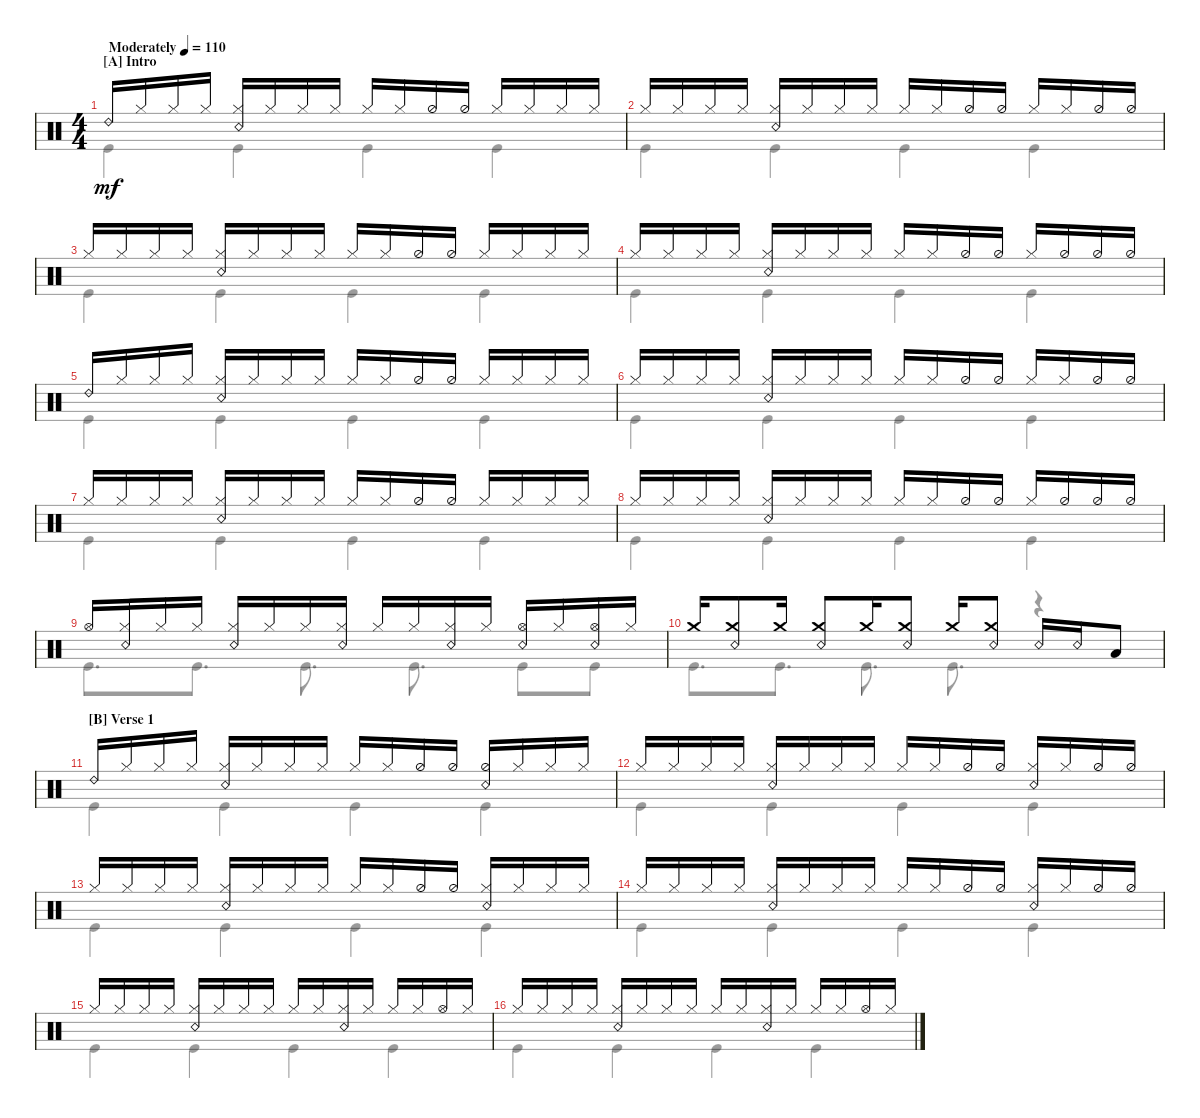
\defaultSystemsLayout 4
\bracketExtendMode groupsimilarinstruments
\singleTrackTrackNamePolicy hidden
\multiTrackTrackNamePolicy hidden
\firstSystemTrackNameOrientation horizontal
\otherSystemsTrackNameOrientation horizontal
\track ("Максим Удалов" "Drums") {instrument percussion}
\staff {score}
\articulation defaults
\voice
\ts (4 4)
\section ("A" "Intro")
\tempo (110 "Moderately")
\clef neutral
\scale
1.05675
\ks c "Ride (bell) 2".16{dy mf} "Hi-Hat (closed)".16 "Hi-Hat (closed)".16 "Hi-Hat (closed)".16
("Hi-Hat (closed)" "Snare (rim shot)").16 "Hi-Hat (closed)".16 "Hi-Hat (closed)".16 "Hi-Hat (closed)".16 "Hi-Hat (closed)".16 "Hi-Hat (closed)".16 "Hi-Hat (half)".16 "Hi-Hat (half)".16 "Hi-Hat (closed)".16 "Hi-Hat (closed)".16 "Hi-Hat (closed)".16 "Hi-Hat (closed)".16 |
\scale
0.943253 "Hi-Hat (closed)".16 "Hi-Hat (closed)".16 "Hi-Hat (closed)".16 "Hi-Hat (closed)".16 ("Hi-Hat (closed)" "Snare (rim shot)").16 "Hi-Hat (closed)".16 "Hi-Hat (closed)".16 "Hi-Hat (closed)".16 "Hi-Hat (closed)".16 "Hi-Hat (closed)".16 "Hi-Hat (half)".16 "Hi-Hat (half)".16 "Hi-Hat (closed)".16 "Hi-Hat (closed)".16 "Hi-Hat (half)".16 "Hi-Hat (half)".16 |
\scale
1.02648 "Hi-Hat (closed)".16 "Hi-Hat (closed)".16 "Hi-Hat (closed)".16 "Hi-Hat (closed)".16 ("Hi-Hat (closed)" "Snare (rim shot)").16 "Hi-Hat (closed)".16 "Hi-Hat (closed)".16 "Hi-Hat (closed)".16 "Hi-Hat (closed)".16 "Hi-Hat (closed)".16 "Hi-Hat (half)".16 "Hi-Hat (half)".16 "Hi-Hat (closed)".16 "Hi-Hat (closed)".16 "Hi-Hat (closed)".16 "Hi-Hat (closed)".16 |
\scale
0.973518 "Hi-Hat (closed)".16 "Hi-Hat (closed)".16 "Hi-Hat (closed)".16 "Hi-Hat (closed)".16 ("Hi-Hat (closed)" "Snare (rim shot)").16 "Hi-Hat (closed)".16 "Hi-Hat (closed)".16 "Hi-Hat (closed)".16 "Hi-Hat (closed)".16 "Hi-Hat (closed)".16 "Hi-Hat (half)".16 "Hi-Hat (half)".16 "Hi-Hat (closed)".16 "Hi-Hat (half)".16 "Hi-Hat (half)".16 "Hi-Hat (half)".16 |
\scale
1.02648 "Ride (bell) 2".16 "Hi-Hat (closed)".16 "Hi-Hat (closed)".16 "Hi-Hat (closed)".16 ("Hi-Hat (closed)" "Snare (rim shot)").16 "Hi-Hat (closed)".16 "Hi-Hat (closed)".16 "Hi-Hat (closed)".16 "Hi-Hat (closed)".16 "Hi-Hat (closed)".16 "Hi-Hat (half)".16 "Hi-Hat (half)".16 "Hi-Hat (closed)".16 "Hi-Hat (closed)".16 "Hi-Hat (closed)".16 "Hi-Hat (closed)".16 |
\scale
0.973518 "Hi-Hat (closed)".16 "Hi-Hat (closed)".16 "Hi-Hat (closed)".16 "Hi-Hat (closed)".16 ("Hi-Hat (closed)" "Snare (rim shot)").16 "Hi-Hat (closed)".16 "Hi-Hat (closed)".16 "Hi-Hat (closed)".16 "Hi-Hat (closed)".16 "Hi-Hat (closed)".16 "Hi-Hat (half)".16 "Hi-Hat (half)".16 "Hi-Hat (closed)".16 "Hi-Hat (closed)".16 "Hi-Hat (half)".16 "Hi-Hat (half)".16 |
\scale
1.02648 "Hi-Hat (closed)".16 "Hi-Hat (closed)".16 "Hi-Hat (closed)".16 "Hi-Hat (closed)".16 ("Hi-Hat (closed)" "Snare (rim shot)").16 "Hi-Hat (closed)".16 "Hi-Hat (closed)".16 "Hi-Hat (closed)".16 "Hi-Hat (closed)".16 "Hi-Hat (closed)".16 "Hi-Hat (half)".16 "Hi-Hat (half)".16 "Hi-Hat (closed)".16 "Hi-Hat (closed)".16 "Hi-Hat (closed)".16 "Hi-Hat (closed)".16 |
\scale
0.973518 "Hi-Hat (closed)".16 "Hi-Hat (closed)".16 "Hi-Hat (closed)".16 "Hi-Hat (closed)".16 ("Hi-Hat (closed)" "Snare (rim shot)").16 "Hi-Hat (closed)".16 "Hi-Hat (closed)".16 "Hi-Hat (closed)".16 "Hi-Hat (closed)".16 "Hi-Hat (closed)".16 "Hi-Hat (half)".16 "Hi-Hat (half)".16 "Hi-Hat (closed)".16 "Hi-Hat (half)".16 "Hi-Hat (half)".16 "Hi-Hat (half)".16 |
\scale
1.02648 "Hi-Hat (open)".16 ("Hi-Hat (closed)" "Snare (rim shot)").16 "Hi-Hat (closed)".16 "Hi-Hat (closed)".16 ("Hi-Hat (closed)" "Snare (rim shot)").16 "Hi-Hat (closed)".16 "Hi-Hat (closed)".16 ("Hi-Hat (closed)" "Snare (rim shot)").16 "Hi-Hat (closed)".16 "Hi-Hat (closed)".16 ("Hi-Hat (closed)" "Snare (rim shot)").16 "Hi-Hat (closed)".16 ("Hi-Hat (open)" "Snare (rim shot)").16 "Hi-Hat (closed)".16 ("Hi-Hat (open)" "Snare (rim shot)").16 "Hi-Hat (closed)".16 |
\scale
0.973518 "Crash medium (hit)".16 ("Crash medium (hit)" "Snare (rim shot)").8 "Crash medium (hit)".16 ("Crash medium (hit)" "Snare (rim shot)").8 "Crash medium (hit)".16 ("Crash medium (hit)" "Snare (rim shot)").8 "Crash medium (hit)".16 ("Crash medium (hit)" "Snare (rim shot)").8 "Snare (rim shot)".16 "Snare (rim shot)".16 "Low Tom (hit)".8 |
\section ("B" "Verse 1")
\scale
1.02648 "Ride (bell) 2".16 "Hi-Hat (closed)".16 "Hi-Hat (closed)".16 "Hi-Hat (closed)".16 ("Hi-Hat (closed)" "Snare (rim shot)").16 "Hi-Hat (closed)".16 "Hi-Hat (closed)".16 "Hi-Hat (closed)".16 "Hi-Hat (closed)".16 "Hi-Hat (closed)".16 "Hi-Hat (half)".16 "Hi-Hat (half)".16 ("Hi-Hat (half)" "Snare (rim shot)").16 "Hi-Hat (closed)".16 "Hi-Hat (closed)".16 "Hi-Hat (closed)".16 |
\scale
0.973518 "Hi-Hat (closed)".16 "Hi-Hat (closed)".16 "Hi-Hat (closed)".16 "Hi-Hat (closed)".16 ("Hi-Hat (closed)" "Snare (rim shot)").16 "Hi-Hat (closed)".16 "Hi-Hat (closed)".16 "Hi-Hat (closed)".16 "Hi-Hat (closed)".16 "Hi-Hat (closed)".16 "Hi-Hat (half)".16 "Hi-Hat (half)".16 ("Snare (rim shot)" "Hi-Hat (closed)").16 "Hi-Hat (closed)".16 "Hi-Hat (half)".16 "Hi-Hat (half)".16 |
\scale
1.02648 "Hi-Hat (closed)".16 "Hi-Hat (closed)".16 "Hi-Hat (closed)".16 "Hi-Hat (closed)".16 ("Hi-Hat (closed)" "Snare (rim shot)").16 "Hi-Hat (closed)".16 "Hi-Hat (closed)".16 "Hi-Hat (closed)".16 "Hi-Hat (closed)".16 "Hi-Hat (closed)".16 "Hi-Hat (half)".16 "Hi-Hat (half)".16 ("Snare (rim shot)" "Hi-Hat (closed)").16 "Hi-Hat (closed)".16 "Hi-Hat (closed)".16 "Hi-Hat (closed)".16 |
\scale
0.973518 "Hi-Hat (closed)".16 "Hi-Hat (closed)".16 "Hi-Hat (closed)".16 "Hi-Hat (closed)".16 ("Hi-Hat (closed)" "Snare (rim shot)").16 "Hi-Hat (closed)".16 "Hi-Hat (closed)".16 "Hi-Hat (closed)".16 "Hi-Hat (closed)".16 "Hi-Hat (closed)".16 "Hi-Hat (half)".16 "Hi-Hat (half)".16 ("Snare (rim shot)" "Hi-Hat (closed)").16 "Hi-Hat (closed)".16 "Hi-Hat (half)".16 "Hi-Hat (half)".16 |
\scale
1.02648 "Hi-Hat (closed)".16 "Hi-Hat (closed)".16 "Hi-Hat (closed)".16 "Hi-Hat (closed)".16 ("Hi-Hat (closed)" "Snare (rim shot)").16 "Hi-Hat (closed)".16 "Hi-Hat (closed)".16 "Hi-Hat (closed)".16 "Hi-Hat (closed)".16 "Hi-Hat (closed)".16 ("Hi-Hat (closed)" "Snare (rim shot)").16 "Hi-Hat (closed)".16 "Hi-Hat (closed)".16 "Hi-Hat (closed)".16 "Hi-Hat (open)".16 "Hi-Hat (closed)".16 |
\scale
0.973518 "Hi-Hat (closed)".16 "Hi-Hat (closed)".16 "Hi-Hat (closed)".16 "Hi-Hat (closed)".16 ("Hi-Hat (closed)" "Snare (rim shot)").16 "Hi-Hat (closed)".16 "Hi-Hat (closed)".16 "Hi-Hat (closed)".16 "Hi-Hat (closed)".16 "Hi-Hat (closed)".16 ("Hi-Hat (closed)" "Snare (rim shot)").16 "Hi-Hat (closed)".16 "Hi-Hat (closed)".16 "Hi-Hat (closed)".16 "Hi-Hat (open)".16 "Hi-Hat (closed)".16
\voice
\clef neutral
\ottava regular
\simile none
\scale
1.05675
\ks c "Kick (hit)".4{dy mf} "Kick (hit)".4 "Kick (hit)".4 "Kick (hit)".4
|
\scale
0.943253 "Kick (hit)".4 "Kick (hit)".4 "Kick (hit)".4 "Kick (hit)".4 |
\scale
1.02648 "Kick (hit)".4 "Kick (hit)".4 "Kick (hit)".4 "Kick (hit)".4 |
\scale
0.973518 "Kick (hit)".4 "Kick (hit)".4 "Kick (hit)".4 "Kick (hit)".4 |
\scale
1.02648 "Kick (hit)".4 "Kick (hit)".4 "Kick (hit)".4 "Kick (hit)".4 |
\scale
0.973518 "Kick (hit)".4 "Kick (hit)".4 "Kick (hit)".4 "Kick (hit)".4 |
\scale
1.02648 "Kick (hit)".4 "Kick (hit)".4 "Kick (hit)".4 "Kick (hit)".4 |
\scale
0.973518 "Kick (hit)".4 "Kick (hit)".4 "Kick (hit)".4 "Kick (hit)".4 |
\scale
1.02648 "Kick (hit)".8{d} "Kick (hit)".8{d} "Kick (hit)".8{d} "Kick (hit)".8{d} "Kick (hit)".8 "Kick (hit)".8 |
\scale
0.973518 "Kick (hit)".8{d} "Kick (hit)".8{d} "Kick (hit)".8{d} "Kick (hit)".8{d} r.4 |
\scale
1.02648 "Kick (hit)".4 "Kick (hit)".4 "Kick (hit)".4 "Kick (hit)".4 |
\scale
0.973518 "Kick (hit)".4 "Kick (hit)".4 "Kick (hit)".4 "Kick (hit)".4 |
\scale
1.02648 "Kick (hit)".4 "Kick (hit)".4 "Kick (hit)".4 "Kick (hit)".4 |
\scale
0.973518 "Kick (hit)".4 "Kick (hit)".4 "Kick (hit)".4 "Kick (hit)".4 |
\scale
1.02648 "Kick (hit)".4 "Kick (hit)".4 "Kick (hit)".4 "Kick (hit)".4 |
\scale
0.973518 "Kick (hit)".4 "Kick (hit)".4 "Kick (hit)".4 "Kick (hit)".4
